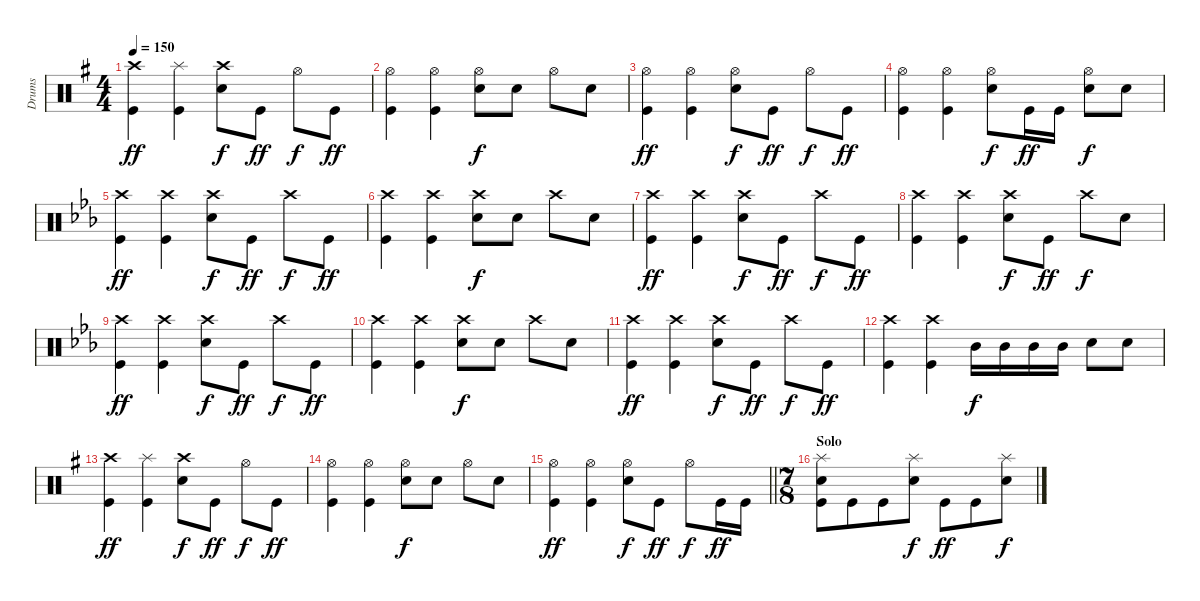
\track ("Drums" "Drums") {instrument percussion}
\staff {score}
\articulation defaults
\ts (4 4)
\tempo 150
\clef neutral
\ks g
("Crash high (hit)" "Kick (hit)").4{dy ff} ("Splash (hit)" "Kick (hit)").4 ("Crash high (hit)" "Electric Snare (hit)").8{dy f} "Kick (hit)".8{dy ff} "Hi-Hat (open)".8{dy f} "Kick (hit)".8{dy ff} |
("Hi-Hat (open)" "Kick (hit)").4 ("Hi-Hat (open)" "Kick (hit)").4 ("Hi-Hat (open)" "Electric Snare (hit)").8{dy f} "Electric Snare (hit)".8 "Hi-Hat (open)".8 "Electric Snare (hit)".8 |
("Hi-Hat (open)" "Kick (hit)").4{dy ff} ("Hi-Hat (open)" "Kick (hit)").4 ("Hi-Hat (open)" "Electric Snare (hit)").8{dy f} "Kick (hit)".8{dy ff} "Hi-Hat (open)".8{dy f} "Kick (hit)".8{dy ff} |
("Hi-Hat (open)" "Kick (hit)").4 ("Hi-Hat (open)" "Kick (hit)").4 ("Hi-Hat (open)" "Electric Snare (hit)").8{dy f} "Kick (hit)".16{dy ff} "Kick (hit)".16 ("Hi-Hat (open)" "Electric Snare (hit)").8{dy f} "Electric Snare (hit)".8 |
\ks eb
("Crash high (hit)" "Kick (hit)").4{dy ff} ("Crash high (hit)" "Kick (hit)").4 ("Crash high (hit)" "Electric Snare (hit)").8{dy f} "Kick (hit)".8{dy ff} "Crash high (hit)".8{dy f} "Kick (hit)".8{dy ff} |
("Crash high (hit)" "Kick (hit)").4 ("Crash high (hit)" "Kick (hit)").4 ("Crash high (hit)" "Electric Snare (hit)").8{dy f} "Electric Snare (hit)".8 "Crash high (hit)".8 "Electric Snare (hit)".8 |
("Crash high (hit)" "Kick (hit)").4{dy ff} ("Crash high (hit)" "Kick (hit)").4 ("Crash high (hit)" "Electric Snare (hit)").8{dy f} "Kick (hit)".8{dy ff} "Crash high (hit)".8{dy f} "Kick (hit)".8{dy ff} |
("Crash high (hit)" "Kick (hit)").4 ("Crash high (hit)" "Kick (hit)").4 ("Crash high (hit)" "Electric Snare (hit)").8{dy f} "Kick (hit)".8{dy ff} "Crash high (hit)".8{dy f} "Electric Snare (hit)".8 |
("Crash high (hit)" "Kick (hit)").4{dy ff} ("Crash high (hit)" "Kick (hit)").4 ("Crash high (hit)" "Electric Snare (hit)").8{dy f} "Kick (hit)".8{dy ff} "Crash high (hit)".8{dy f} "Kick (hit)".8{dy ff} |
("Crash high (hit)" "Kick (hit)").4 ("Crash high (hit)" "Kick (hit)").4 ("Crash high (hit)" "Electric Snare (hit)").8{dy f} "Electric Snare (hit)".8 "Crash high (hit)".8 "Electric Snare (hit)".8 |
("Crash high (hit)" "Kick (hit)").4{dy ff} ("Crash high (hit)" "Kick (hit)").4 ("Crash high (hit)" "Electric Snare (hit)").8{dy f} "Kick (hit)".8{dy ff} "Crash high (hit)".8{dy f} "Kick (hit)".8{dy ff} |
("Crash high (hit)" "Kick (hit)").4 ("Crash high (hit)" "Kick (hit)").4 "Mid Tom (hit)".16{dy f} "Mid Tom (hit)".16 "Mid Tom (hit)".16 "Mid Tom (hit)".16 "Electric Snare (hit)".8 "Electric Snare (hit)".8 |
\ks g
("Crash high (hit)" "Kick (hit)").4{dy ff} ("Splash (hit)" "Kick (hit)").4 ("Crash high (hit)" "Electric Snare (hit)").8{dy f} "Kick (hit)".8{dy ff} "Hi-Hat (open)".8{dy f} "Kick (hit)".8{dy ff} |
("Hi-Hat (open)" "Kick (hit)").4 ("Hi-Hat (open)" "Kick (hit)").4 ("Hi-Hat (open)" "Electric Snare (hit)").8{dy f} "Electric Snare (hit)".8 "Hi-Hat (open)".8 "Electric Snare (hit)".8 |
\barLineRight lightlight
("Hi-Hat (open)" "Kick (hit)").4{dy ff} ("Hi-Hat (open)" "Kick (hit)").4 ("Hi-Hat (open)" "Electric Snare (hit)").8{dy f} "Kick (hit)".8{dy ff} "Hi-Hat (open)".8{dy f} "Kick (hit)".16{dy ff} "Kick (hit)".16 |
\ts (7 8)
\section ("" "Solo")
("Splash (hit)" "Electric Snare (hit)" "Kick (hit)").8 "Kick (hit)".8 "Kick (hit)".8 ("Splash (hit)" "Electric Snare (hit)").8{dy f} "Kick (hit)".8{dy ff} "Kick (hit)".8 ("Splash (hit)" "Electric Snare (hit)").8{dy f}
